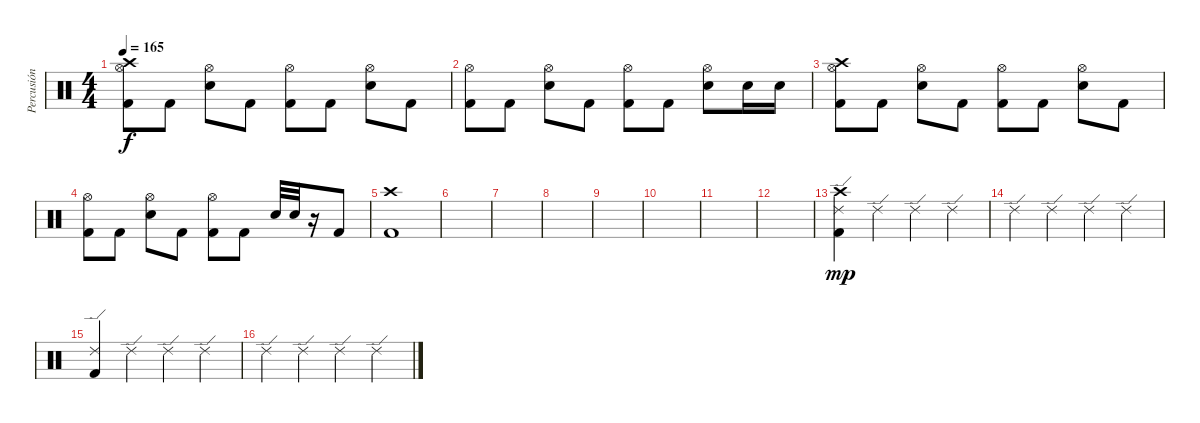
\track ("Percusión" "Percusión") {instrument percussion}
\staff {score}
\articulation defaults
\ts (4 4)
\tempo 165
\clef neutral
\ks c
("Crash high (hit)" "Hi-Hat (open)" "Kick (hit) 2").8{dy f} "Kick (hit) 2".8 ("Hi-Hat (open)" "Snare (hit) 2").8 "Kick (hit) 2".8 ("Hi-Hat (open)" "Kick (hit) 2").8 "Kick (hit) 2".8 ("Hi-Hat (open)" "Snare (hit) 2").8 "Kick (hit) 2".8 |
("Hi-Hat (open)" "Kick (hit) 2").8 "Kick (hit) 2".8 ("Hi-Hat (open)" "Snare (hit) 2").8 "Kick (hit) 2".8 ("Hi-Hat (open)" "Kick (hit) 2").8 "Kick (hit) 2".8 ("Hi-Hat (open)" "Snare (hit) 2").8 "Snare (hit) 2".16 "Snare (hit) 2".16 |
("Crash high (hit)" "Hi-Hat (open)" "Kick (hit) 2").8 "Kick (hit) 2".8 ("Hi-Hat (open)" "Snare (hit) 2").8 "Kick (hit) 2".8 ("Hi-Hat (open)" "Kick (hit) 2").8 "Kick (hit) 2".8 ("Hi-Hat (open)" "Snare (hit) 2").8 "Kick (hit) 2".8 |
("Hi-Hat (open)" "Kick (hit) 2").8 "Kick (hit) 2".8 ("Hi-Hat (open)" "Snare (hit) 2").8 "Kick (hit) 2".8 ("Hi-Hat (open)" "Kick (hit) 2").8 "Kick (hit) 2".8 "Snare (hit) 2".32 "Snare (hit) 2".32 r.16 "Kick (hit) 2".8 |
("Crash high (hit)" "Kick (hit) 2").1 |
|
|
|
|
|
|
|
("Crash high (hit)" "Ride (edge) 2" "Kick (hit) 2").4{dy mp} "Ride (edge) 2".4 "Ride (edge) 2".4 "Ride (edge) 2".4 |
"Ride (edge) 2".4 "Ride (edge) 2".4 "Ride (edge) 2".4 "Ride (edge) 2".4 |
("Ride (edge) 2" "Kick (hit) 2").4 "Ride (edge) 2".4 "Ride (edge) 2".4 "Ride (edge) 2".4 |
"Ride (edge) 2".4 "Ride (edge) 2".4 "Ride (edge) 2".4 "Ride (edge) 2".4
